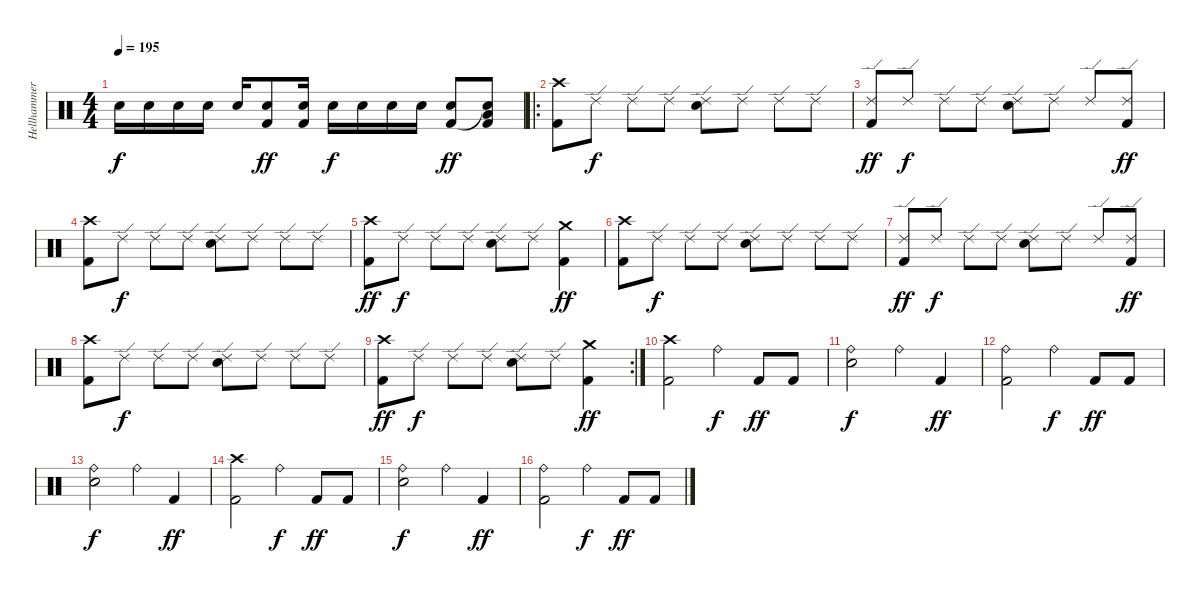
\track ("Hellhammer" "Hellhammer") {instrument percussion}
\staff {score}
\articulation defaults
\ts (4 4)
\tempo 195
\clef neutral
\ks c "Electric Snare (hit)".16{dy f} "Electric Snare (hit)".16 "Electric Snare (hit)".16 "Electric Snare (hit)".16 "Electric Snare (hit)".16
("Electric Snare (hit)" "Kick (hit) 2").8{dy ff} ("Electric Snare (hit)" "Kick (hit) 2").16 "Electric Snare (hit)".16{dy f} "Electric Snare (hit)".16 "Electric Snare (hit)".16 "Electric Snare (hit)".16 ("Electric Snare (hit)" "Kick (hit) 2").8{dy ff} ("Low Tom (hit)" "Electric Snare (hit)"{t} "Kick (hit) 2").8 |
\ro
("Crash high (hit)" "Kick (hit) 2").8 "Ride (edge) 2".8{dy f} "Ride (edge) 2".8 "Ride (edge) 2".8 ("Ride (edge) 2" "Electric Snare (hit)").8 "Ride (edge) 2".8 "Ride (edge) 2".8 "Ride (edge) 2".8 |
("Ride (edge) 2" "Kick (hit) 2").8{dy ff} "Ride (edge) 2".8{dy f} "Ride (edge) 2".8 "Ride (edge) 2".8 ("Ride (edge) 2" "Electric Snare (hit)").8 "Ride (edge) 2".8 "Ride (edge) 2".8 ("Ride (edge) 2" "Kick (hit) 2").8{dy ff} |
("Crash high (hit)" "Kick (hit) 2").8 "Ride (edge) 2".8{dy f} "Ride (edge) 2".8 "Ride (edge) 2".8 ("Ride (edge) 2" "Electric Snare (hit)").8 "Ride (edge) 2".8 "Ride (edge) 2".8 "Ride (edge) 2".8 |
("Crash high (hit)" "Kick (hit) 2").8{dy ff} "Ride (edge) 2".8{dy f} "Ride (edge) 2".8 "Ride (edge) 2".8 ("Ride (edge) 2" "Electric Snare (hit)").8 "Ride (edge) 2".8 ("Crash medium (hit)" "Kick (hit) 2").4{dy ff} |
("Crash high (hit)" "Kick (hit) 2").8 "Ride (edge) 2".8{dy f} "Ride (edge) 2".8 "Ride (edge) 2".8 ("Ride (edge) 2" "Electric Snare (hit)").8 "Ride (edge) 2".8 "Ride (edge) 2".8 "Ride (edge) 2".8 |
("Ride (edge) 2" "Kick (hit) 2").8{dy ff} "Ride (edge) 2".8{dy f} "Ride (edge) 2".8 "Ride (edge) 2".8 ("Ride (edge) 2" "Electric Snare (hit)").8 "Ride (edge) 2".8 "Ride (edge) 2".8 ("Ride (edge) 2" "Kick (hit) 2").8{dy ff} |
("Crash high (hit)" "Kick (hit) 2").8 "Ride (edge) 2".8{dy f} "Ride (edge) 2".8 "Ride (edge) 2".8 ("Ride (edge) 2" "Electric Snare (hit)").8 "Ride (edge) 2".8 "Ride (edge) 2".8 "Ride (edge) 2".8 |
\rc 2
("Crash high (hit)" "Kick (hit) 2").8{dy ff} "Ride (edge) 2".8{dy f} "Ride (edge) 2".8 "Ride (edge) 2".8 ("Ride (edge) 2" "Electric Snare (hit)").8 "Ride (edge) 2".8 ("Crash medium (hit)" "Kick (hit) 2").4{dy ff} |
("Crash high (hit)" "Kick (hit) 2").2 "Ride (bell)".4{dy f} "Kick (hit) 2".8{dy ff} "Kick (hit) 2".8 |
("Ride (bell)" "Electric Snare (hit)").2{dy f} "Ride (bell)".4 "Kick (hit) 2".4{dy ff} |
("Ride (bell)" "Kick (hit) 2").2 "Ride (bell)".4{dy f} "Kick (hit) 2".8{dy ff} "Kick (hit) 2".8 |
("Ride (bell)" "Electric Snare (hit)").2{dy f} "Ride (bell)".4 "Kick (hit) 2".4{dy ff} |
("Crash high (hit)" "Kick (hit) 2").2 "Ride (bell)".4{dy f} "Kick (hit) 2".8{dy ff} "Kick (hit) 2".8 |
("Ride (bell)" "Electric Snare (hit)").2{dy f} "Ride (bell)".4 "Kick (hit) 2".4{dy ff} |
("Ride (bell)" "Kick (hit) 2").2 "Ride (bell)".4{dy f} "Kick (hit) 2".8{dy ff} "Kick (hit) 2".8
